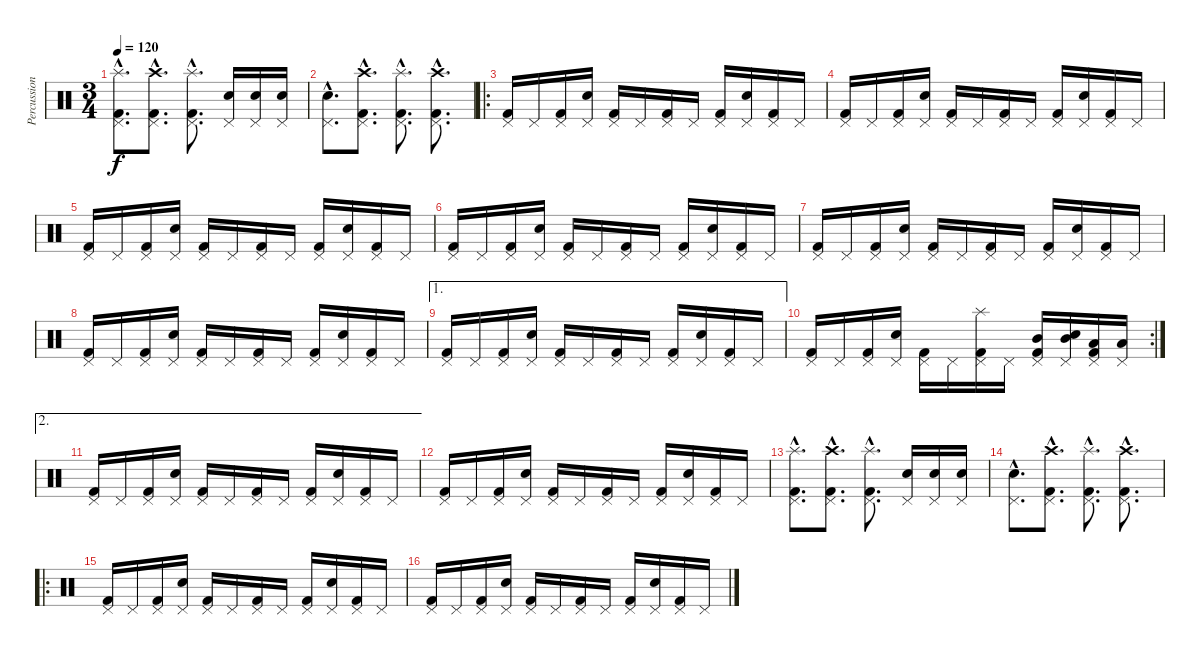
\track ("Percussion" "Percussion") {instrument percussion}
\staff {score}
\articulation defaults
\ts (3 4)
\tempo 120
\clef neutral
\ks c
("Kick (hit) 2"{hac} "Pedal Hi-Hat (hit)"{hac} "Splash (hit)"{hac}).8{d dy f} ("Kick (hit) 2"{hac} "Pedal Hi-Hat (hit)"{hac} "Crash high (hit)"{hac}).8{d} ("Kick (hit) 2"{hac} "Pedal Hi-Hat (hit)"{hac} "Splash (hit)"{hac}).8{d} ("Pedal Hi-Hat (hit)" "Electric Snare (hit)").16 ("Pedal Hi-Hat (hit)" "Electric Snare (hit)").16 ("Pedal Hi-Hat (hit)" "Electric Snare (hit)").16 |
("Pedal Hi-Hat (hit)"{hac} "Electric Snare (hit)"{hac}).8{d} ("Kick (hit) 2"{hac} "Pedal Hi-Hat (hit)"{hac} "Crash high (hit)"{hac}).8{d} ("Kick (hit) 2"{hac} "Pedal Hi-Hat (hit)"{hac} "Splash (hit)"{hac}).8{d} ("Kick (hit) 2"{hac} "Pedal Hi-Hat (hit)"{hac} "Crash high (hit)"{hac}).8{d} |
\ro
("Kick (hit) 2" "Pedal Hi-Hat (hit)").16 "Pedal Hi-Hat (hit)".16 ("Kick (hit) 2" "Pedal Hi-Hat (hit)").16 ("Pedal Hi-Hat (hit)" "Electric Snare (hit)").16 ("Kick (hit) 2" "Pedal Hi-Hat (hit)").16 "Pedal Hi-Hat (hit)".16 ("Kick (hit) 2" "Pedal Hi-Hat (hit)").16 "Pedal Hi-Hat (hit)".16 ("Kick (hit) 2" "Pedal Hi-Hat (hit)").16 ("Pedal Hi-Hat (hit)" "Electric Snare (hit)").16 ("Kick (hit) 2" "Pedal Hi-Hat (hit)").16 "Pedal Hi-Hat (hit)".16 |
("Kick (hit) 2" "Pedal Hi-Hat (hit)").16 "Pedal Hi-Hat (hit)".16 ("Kick (hit) 2" "Pedal Hi-Hat (hit)").16 ("Pedal Hi-Hat (hit)" "Electric Snare (hit)").16 ("Kick (hit) 2" "Pedal Hi-Hat (hit)").16 "Pedal Hi-Hat (hit)".16 ("Kick (hit) 2" "Pedal Hi-Hat (hit)").16 "Pedal Hi-Hat (hit)".16 ("Kick (hit) 2" "Pedal Hi-Hat (hit)").16 ("Pedal Hi-Hat (hit)" "Electric Snare (hit)").16 ("Kick (hit) 2" "Pedal Hi-Hat (hit)").16 "Pedal Hi-Hat (hit)".16 |
("Kick (hit) 2" "Pedal Hi-Hat (hit)").16 "Pedal Hi-Hat (hit)".16 ("Kick (hit) 2" "Pedal Hi-Hat (hit)").16 ("Pedal Hi-Hat (hit)" "Electric Snare (hit)").16 ("Kick (hit) 2" "Pedal Hi-Hat (hit)").16 "Pedal Hi-Hat (hit)".16 ("Kick (hit) 2" "Pedal Hi-Hat (hit)").16 "Pedal Hi-Hat (hit)".16 ("Kick (hit) 2" "Pedal Hi-Hat (hit)").16 ("Pedal Hi-Hat (hit)" "Electric Snare (hit)").16 ("Kick (hit) 2" "Pedal Hi-Hat (hit)").16 "Pedal Hi-Hat (hit)".16 |
("Kick (hit) 2" "Pedal Hi-Hat (hit)").16 "Pedal Hi-Hat (hit)".16 ("Kick (hit) 2" "Pedal Hi-Hat (hit)").16 ("Pedal Hi-Hat (hit)" "Electric Snare (hit)").16 ("Kick (hit) 2" "Pedal Hi-Hat (hit)").16 "Pedal Hi-Hat (hit)".16 ("Kick (hit) 2" "Pedal Hi-Hat (hit)").16 "Pedal Hi-Hat (hit)".16 ("Kick (hit) 2" "Pedal Hi-Hat (hit)").16 ("Pedal Hi-Hat (hit)" "Electric Snare (hit)").16 ("Kick (hit) 2" "Pedal Hi-Hat (hit)").16 "Pedal Hi-Hat (hit)".16 |
("Kick (hit) 2" "Pedal Hi-Hat (hit)").16 "Pedal Hi-Hat (hit)".16 ("Kick (hit) 2" "Pedal Hi-Hat (hit)").16 ("Pedal Hi-Hat (hit)" "Electric Snare (hit)").16 ("Kick (hit) 2" "Pedal Hi-Hat (hit)").16 "Pedal Hi-Hat (hit)".16 ("Kick (hit) 2" "Pedal Hi-Hat (hit)").16 "Pedal Hi-Hat (hit)".16 ("Kick (hit) 2" "Pedal Hi-Hat (hit)").16 ("Pedal Hi-Hat (hit)" "Electric Snare (hit)").16 ("Kick (hit) 2" "Pedal Hi-Hat (hit)").16 "Pedal Hi-Hat (hit)".16 |
("Kick (hit) 2" "Pedal Hi-Hat (hit)").16 "Pedal Hi-Hat (hit)".16 ("Kick (hit) 2" "Pedal Hi-Hat (hit)").16 ("Pedal Hi-Hat (hit)" "Electric Snare (hit)").16 ("Kick (hit) 2" "Pedal Hi-Hat (hit)").16 "Pedal Hi-Hat (hit)".16 ("Kick (hit) 2" "Pedal Hi-Hat (hit)").16 "Pedal Hi-Hat (hit)".16 ("Kick (hit) 2" "Pedal Hi-Hat (hit)").16 ("Pedal Hi-Hat (hit)" "Electric Snare (hit)").16 ("Kick (hit) 2" "Pedal Hi-Hat (hit)").16 "Pedal Hi-Hat (hit)".16 |
\ae 1
("Kick (hit) 2" "Pedal Hi-Hat (hit)").16 "Pedal Hi-Hat (hit)".16 ("Kick (hit) 2" "Pedal Hi-Hat (hit)").16 ("Pedal Hi-Hat (hit)" "Electric Snare (hit)").16 ("Kick (hit) 2" "Pedal Hi-Hat (hit)").16 "Pedal Hi-Hat (hit)".16 ("Kick (hit) 2" "Pedal Hi-Hat (hit)").16 "Pedal Hi-Hat (hit)".16 ("Kick (hit) 2" "Pedal Hi-Hat (hit)").16 ("Pedal Hi-Hat (hit)" "Electric Snare (hit)").16 ("Kick (hit) 2" "Pedal Hi-Hat (hit)").16 "Pedal Hi-Hat (hit)".16 |
\rc 2
("Kick (hit) 2" "Pedal Hi-Hat (hit)").16 "Pedal Hi-Hat (hit)".16 ("Kick (hit) 2" "Pedal Hi-Hat (hit)").16 ("Pedal Hi-Hat (hit)" "Electric Snare (hit)").16 ("Kick (hit) 2" "Pedal Hi-Hat (hit)").16 "Pedal Hi-Hat (hit)".16 ("Kick (hit) 2" "Pedal Hi-Hat (hit)" "Splash (hit)").16 "Pedal Hi-Hat (hit)".16 ("Kick (hit) 2" "Pedal Hi-Hat (hit)" "Mid Tom (hit)").16 ("Pedal Hi-Hat (hit)" "Electric Snare (hit)" "Mid Tom (hit)").16 ("Kick (hit) 2" "Pedal Hi-Hat (hit)" "Low Tom (hit)").16 ("Pedal Hi-Hat (hit)" "Low Tom (hit)").16 |
\ae 2
("Kick (hit) 2" "Pedal Hi-Hat (hit)").16 "Pedal Hi-Hat (hit)".16 ("Kick (hit) 2" "Pedal Hi-Hat (hit)").16 ("Pedal Hi-Hat (hit)" "Electric Snare (hit)").16 ("Kick (hit) 2" "Pedal Hi-Hat (hit)").16 "Pedal Hi-Hat (hit)".16 ("Kick (hit) 2" "Pedal Hi-Hat (hit)").16 "Pedal Hi-Hat (hit)".16 ("Kick (hit) 2" "Pedal Hi-Hat (hit)").16 ("Pedal Hi-Hat (hit)" "Electric Snare (hit)").16 ("Kick (hit) 2" "Pedal Hi-Hat (hit)").16 "Pedal Hi-Hat (hit)".16 |
("Kick (hit) 2" "Pedal Hi-Hat (hit)").16 "Pedal Hi-Hat (hit)".16 ("Kick (hit) 2" "Pedal Hi-Hat (hit)").16 ("Pedal Hi-Hat (hit)" "Electric Snare (hit)").16 ("Kick (hit) 2" "Pedal Hi-Hat (hit)").16 "Pedal Hi-Hat (hit)".16 ("Kick (hit) 2" "Pedal Hi-Hat (hit)").16 "Pedal Hi-Hat (hit)".16 ("Kick (hit) 2" "Pedal Hi-Hat (hit)").16 ("Pedal Hi-Hat (hit)" "Electric Snare (hit)").16 ("Kick (hit) 2" "Pedal Hi-Hat (hit)").16 "Pedal Hi-Hat (hit)".16 |
("Kick (hit) 2"{hac} "Pedal Hi-Hat (hit)"{hac} "Splash (hit)"{hac}).8{d} ("Kick (hit) 2"{hac} "Pedal Hi-Hat (hit)"{hac} "Crash high (hit)"{hac}).8{d} ("Kick (hit) 2"{hac} "Pedal Hi-Hat (hit)"{hac} "Splash (hit)"{hac}).8{d} ("Pedal Hi-Hat (hit)" "Electric Snare (hit)").16 ("Pedal Hi-Hat (hit)" "Electric Snare (hit)").16 ("Pedal Hi-Hat (hit)" "Electric Snare (hit)").16 |
("Pedal Hi-Hat (hit)"{hac} "Electric Snare (hit)"{hac}).8{d} ("Kick (hit) 2"{hac} "Pedal Hi-Hat (hit)"{hac} "Crash high (hit)"{hac}).8{d} ("Kick (hit) 2"{hac} "Pedal Hi-Hat (hit)"{hac} "Splash (hit)"{hac}).8{d} ("Kick (hit) 2"{hac} "Pedal Hi-Hat (hit)"{hac} "Crash high (hit)"{hac}).8{d} |
\ro
("Kick (hit) 2" "Pedal Hi-Hat (hit)").16 "Pedal Hi-Hat (hit)".16 ("Kick (hit) 2" "Pedal Hi-Hat (hit)").16 ("Pedal Hi-Hat (hit)" "Electric Snare (hit)").16 ("Kick (hit) 2" "Pedal Hi-Hat (hit)").16 "Pedal Hi-Hat (hit)".16 ("Kick (hit) 2" "Pedal Hi-Hat (hit)").16 "Pedal Hi-Hat (hit)".16 ("Kick (hit) 2" "Pedal Hi-Hat (hit)").16 ("Pedal Hi-Hat (hit)" "Electric Snare (hit)").16 ("Kick (hit) 2" "Pedal Hi-Hat (hit)").16 "Pedal Hi-Hat (hit)".16 |
("Kick (hit) 2" "Pedal Hi-Hat (hit)").16 "Pedal Hi-Hat (hit)".16 ("Kick (hit) 2" "Pedal Hi-Hat (hit)").16 ("Pedal Hi-Hat (hit)" "Electric Snare (hit)").16 ("Kick (hit) 2" "Pedal Hi-Hat (hit)").16 "Pedal Hi-Hat (hit)".16 ("Kick (hit) 2" "Pedal Hi-Hat (hit)").16 "Pedal Hi-Hat (hit)".16 ("Kick (hit) 2" "Pedal Hi-Hat (hit)").16 ("Pedal Hi-Hat (hit)" "Electric Snare (hit)").16 ("Kick (hit) 2" "Pedal Hi-Hat (hit)").16 "Pedal Hi-Hat (hit)".16
